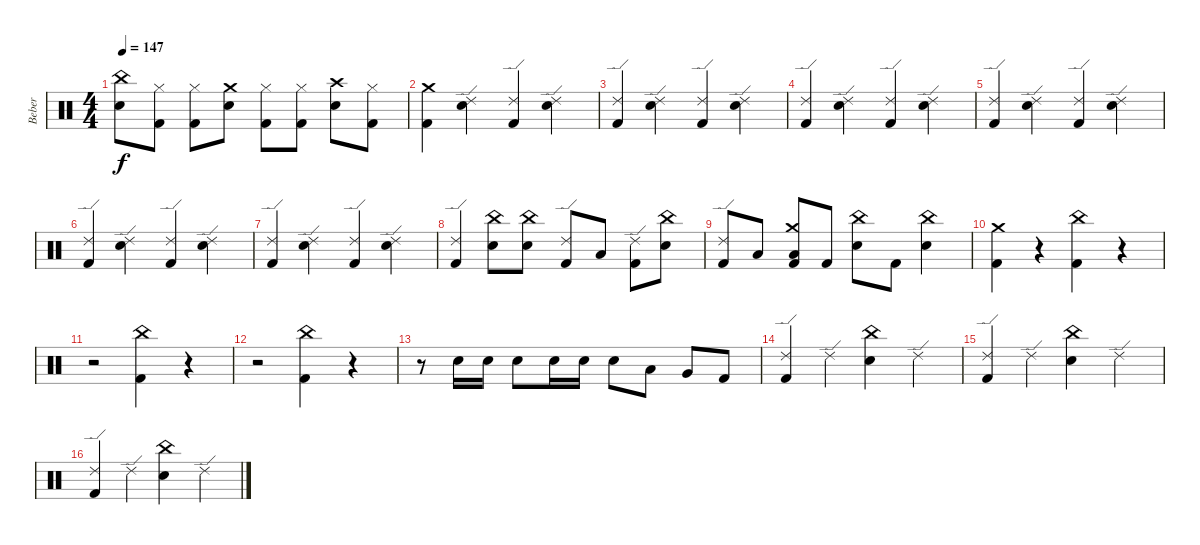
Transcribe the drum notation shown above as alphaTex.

\track ("Beber" "Beber") {instrument percussion}
\staff {score}
\articulation defaults
\ts (4 4)
\tempo 147
\clef neutral
\ks c
("China (hit)" "Snare (hit) 2").8{dy f} ("Hi-Hat (closed)" "Kick (hit) 2").8 ("Hi-Hat (closed)" "Kick (hit) 2").8 ("Crash medium (hit)" "Snare (hit) 2").8 ("Hi-Hat (closed)" "Kick (hit) 2").8 ("Hi-Hat (closed)" "Kick (hit) 2").8 ("Crash high (hit)" "Snare (hit) 2").8 ("Hi-Hat (closed)" "Kick (hit) 2").8 |
("Crash medium (hit)" "Kick (hit) 2").4 ("Ride (edge) 2" "Snare (hit) 2").4 ("Ride (edge) 2" "Kick (hit) 2").4 ("Ride (edge) 2" "Snare (hit) 2").4 |
("Ride (edge) 2" "Kick (hit) 2").4 ("Ride (edge) 2" "Snare (hit) 2").4 ("Ride (edge) 2" "Kick (hit) 2").4 ("Ride (edge) 2" "Snare (hit) 2").4 |
("Ride (edge) 2" "Kick (hit) 2").4 ("Ride (edge) 2" "Snare (hit) 2").4 ("Ride (edge) 2" "Kick (hit) 2").4 ("Ride (edge) 2" "Snare (hit) 2").4 |
("Ride (edge) 2" "Kick (hit) 2").4 ("Ride (edge) 2" "Snare (hit) 2").4 ("Ride (edge) 2" "Kick (hit) 2").4 ("Ride (edge) 2" "Snare (hit) 2").4 |
("Ride (edge) 2" "Kick (hit) 2").4 ("Ride (edge) 2" "Snare (hit) 2").4 ("Ride (edge) 2" "Kick (hit) 2").4 ("Ride (edge) 2" "Snare (hit) 2").4 |
("Ride (edge) 2" "Kick (hit) 2").4 ("Ride (edge) 2" "Snare (hit) 2").4 ("Ride (edge) 2" "Kick (hit) 2").4 ("Ride (edge) 2" "Snare (hit) 2").4 |
("Ride (edge) 2" "Kick (hit) 2").4 ("China (hit)" "Snare (hit) 2").8 ("China (hit)" "Snare (hit) 2").8 ("Ride (edge) 2" "Kick (hit) 2").8 "Low Tom (hit)".8 ("Ride (edge) 2" "Kick (hit) 2").8 ("China (hit)" "Snare (hit) 2").8 |
("Ride (edge) 2" "Kick (hit) 2").8 "Low Floor Tom (hit)".8 ("Crash medium (hit)" "Low Floor Tom (hit)" "Kick (hit) 2").8 "Kick (hit) 2".8 ("China (hit)" "Snare (hit) 2").8 "Kick (hit) 2".8 ("China (hit)" "Snare (hit) 2").4 |
("Crash medium (hit)" "Kick (hit) 2").4 r.4 ("China (hit)" "Kick (hit) 2").4 r.4 |
r.2 ("China (hit)" "Kick (hit) 2").4 r.4 |
r.2 ("China (hit)" "Kick (hit) 2").4 r.4 |
r.8 "Snare (hit) 2".16 "Snare (hit) 2".16 "Snare (hit) 2".8 "Snare (hit) 2".16 "Snare (hit) 2".16 "Snare (hit) 2".8 "Low Tom (hit)".8 "Very Low Tom (hit)".8 "Kick (hit) 2".8 |
("Ride (edge) 2" "Kick (hit) 2").4 "Ride (edge) 2".4 ("China (hit)" "Snare (hit) 2").4 "Ride (edge) 2".4 |
("Ride (edge) 2" "Kick (hit) 2").4 "Ride (edge) 2".4 ("China (hit)" "Snare (hit) 2").4 "Ride (edge) 2".4 |
("Ride (edge) 2" "Kick (hit) 2").4 "Ride (edge) 2".4 ("China (hit)" "Snare (hit) 2").4 "Ride (edge) 2".4
